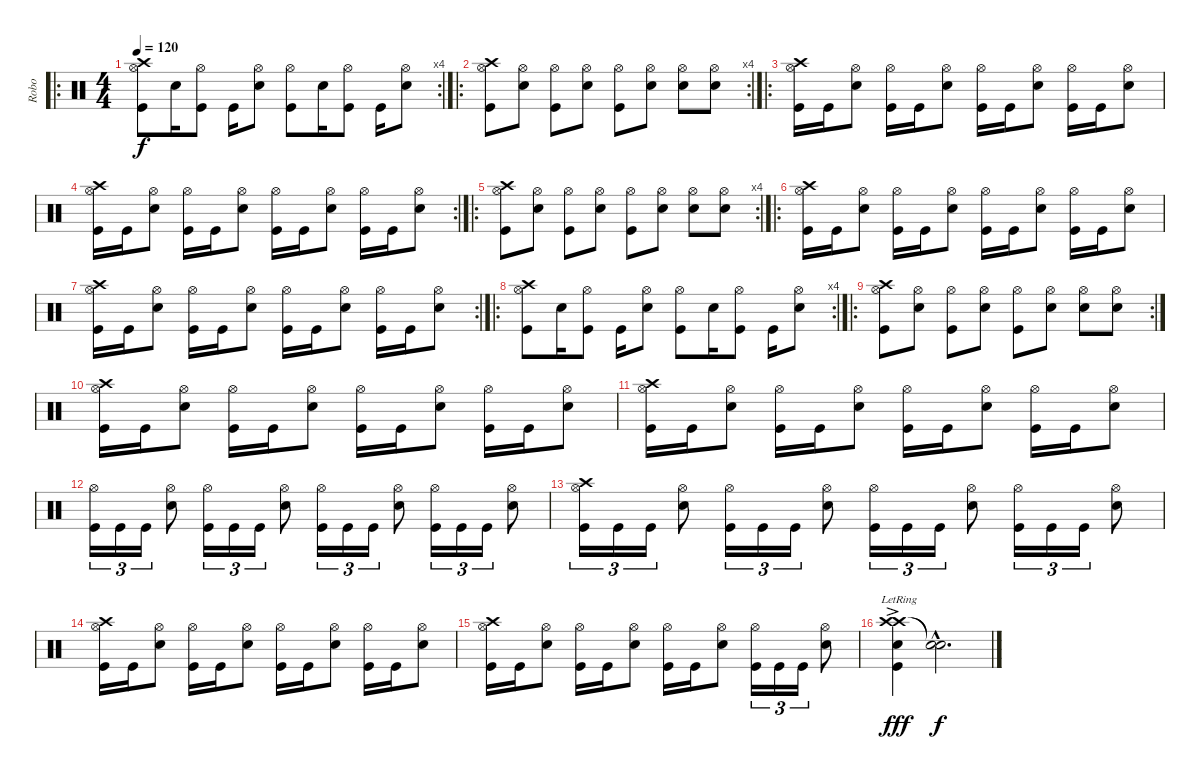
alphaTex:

\track ("Robo" "Robo") {instrument percussion}
\staff {score}
\articulation defaults
\ro
\rc 4
\ts (4 4)
\tempo 120
\clef neutral
\ks c
("Crash high (hit)" "Hi-Hat (open)" "Kick (hit)").8{dy f} "Snare (hit) 2".16 ("Hi-Hat (open)" "Kick (hit)").8 "Kick (hit)".16 ("Hi-Hat (open)" "Snare (hit) 2").8 ("Hi-Hat (open)" "Kick (hit)").8 "Snare (hit) 2".16 ("Hi-Hat (open)" "Kick (hit)").8 "Kick (hit)".16 ("Hi-Hat (open)" "Snare (hit) 2").8 |
\ro
\rc 4
("Crash high (hit)" "Hi-Hat (open)" "Kick (hit)").8 ("Hi-Hat (open)" "Snare (hit) 2").8 ("Hi-Hat (open)" "Kick (hit)").8 ("Hi-Hat (open)" "Snare (hit) 2").8 ("Hi-Hat (open)" "Kick (hit)").8 ("Hi-Hat (open)" "Snare (hit) 2").8 ("Hi-Hat (open)" "Snare (hit) 2").8 ("Hi-Hat (open)" "Snare (hit) 2").8 |
\ro
("Crash high (hit)" "Hi-Hat (open)" "Kick (hit)").16 "Kick (hit)".16 ("Hi-Hat (open)" "Snare (hit) 2").8 ("Hi-Hat (open)" "Kick (hit)").16 "Kick (hit)".16 ("Hi-Hat (open)" "Snare (hit) 2").8 ("Hi-Hat (open)" "Kick (hit)").16 "Kick (hit)".16 ("Hi-Hat (open)" "Snare (hit) 2").8 ("Hi-Hat (open)" "Kick (hit)").16 "Kick (hit)".16 ("Hi-Hat (open)" "Snare (hit) 2").8 |
\rc 2
("Crash high (hit)" "Hi-Hat (open)" "Kick (hit)").16 "Kick (hit)".16 ("Hi-Hat (open)" "Snare (hit) 2").8 ("Hi-Hat (open)" "Kick (hit)").16 "Kick (hit)".16 ("Hi-Hat (open)" "Snare (hit) 2").8 ("Hi-Hat (open)" "Kick (hit)").16 "Kick (hit)".16 ("Hi-Hat (open)" "Snare (hit) 2").8 ("Hi-Hat (open)" "Kick (hit)").16 "Kick (hit)".16 ("Hi-Hat (open)" "Snare (hit) 2").8 |
\ro
\rc 4
("Crash high (hit)" "Hi-Hat (open)" "Kick (hit)").8 ("Hi-Hat (open)" "Snare (hit) 2").8 ("Hi-Hat (open)" "Kick (hit)").8 ("Hi-Hat (open)" "Snare (hit) 2").8 ("Hi-Hat (open)" "Kick (hit)").8 ("Hi-Hat (open)" "Snare (hit) 2").8 ("Hi-Hat (open)" "Snare (hit) 2").8 ("Hi-Hat (open)" "Snare (hit) 2").8 |
\ro
("Crash high (hit)" "Hi-Hat (open)" "Kick (hit)").16 "Kick (hit)".16 ("Hi-Hat (open)" "Snare (hit) 2").8 ("Hi-Hat (open)" "Kick (hit)").16 "Kick (hit)".16 ("Hi-Hat (open)" "Snare (hit) 2").8 ("Hi-Hat (open)" "Kick (hit)").16 "Kick (hit)".16 ("Hi-Hat (open)" "Snare (hit) 2").8 ("Hi-Hat (open)" "Kick (hit)").16 "Kick (hit)".16 ("Hi-Hat (open)" "Snare (hit) 2").8 |
\rc 2
("Crash high (hit)" "Hi-Hat (open)" "Kick (hit)").16 "Kick (hit)".16 ("Hi-Hat (open)" "Snare (hit) 2").8 ("Hi-Hat (open)" "Kick (hit)").16 "Kick (hit)".16 ("Hi-Hat (open)" "Snare (hit) 2").8 ("Hi-Hat (open)" "Kick (hit)").16 "Kick (hit)".16 ("Hi-Hat (open)" "Snare (hit) 2").8 ("Hi-Hat (open)" "Kick (hit)").16 "Kick (hit)".16 ("Hi-Hat (open)" "Snare (hit) 2").8 |
\ro
\rc 4
("Crash high (hit)" "Hi-Hat (open)" "Kick (hit)").8 "Snare (hit) 2".16 ("Hi-Hat (open)" "Kick (hit)").8 "Kick (hit)".16 ("Hi-Hat (open)" "Snare (hit) 2").8 ("Hi-Hat (open)" "Kick (hit)").8 "Snare (hit) 2".16 ("Hi-Hat (open)" "Kick (hit)").8 "Kick (hit)".16 ("Hi-Hat (open)" "Snare (hit) 2").8 |
\ro
\rc 2
("Crash high (hit)" "Hi-Hat (open)" "Kick (hit)").8 ("Hi-Hat (open)" "Snare (hit) 2").8 ("Hi-Hat (open)" "Kick (hit)").8 ("Hi-Hat (open)" "Snare (hit) 2").8 ("Hi-Hat (open)" "Kick (hit)").8 ("Hi-Hat (open)" "Snare (hit) 2").8 ("Hi-Hat (open)" "Snare (hit) 2").8 ("Hi-Hat (open)" "Snare (hit) 2").8 |
("Crash high (hit)" "Hi-Hat (open)" "Kick (hit)").16 "Kick (hit)".16 ("Hi-Hat (open)" "Snare (hit) 2").8 ("Hi-Hat (open)" "Kick (hit)").16 "Kick (hit)".16 ("Hi-Hat (open)" "Snare (hit) 2").8 ("Hi-Hat (open)" "Kick (hit)").16 "Kick (hit)".16 ("Hi-Hat (open)" "Snare (hit) 2").8 ("Hi-Hat (open)" "Kick (hit)").16 "Kick (hit)".16 ("Hi-Hat (open)" "Snare (hit) 2").8 |
("Crash high (hit)" "Hi-Hat (open)" "Kick (hit)").16 "Kick (hit)".16 ("Hi-Hat (open)" "Snare (hit) 2").8 ("Hi-Hat (open)" "Kick (hit)").16 "Kick (hit)".16 ("Hi-Hat (open)" "Snare (hit) 2").8 ("Hi-Hat (open)" "Kick (hit)").16 "Kick (hit)".16 ("Hi-Hat (open)" "Snare (hit) 2").8 ("Hi-Hat (open)" "Kick (hit)").16 "Kick (hit)".16 ("Hi-Hat (open)" "Snare (hit) 2").8 |
("Hi-Hat (open)" "Kick (hit)").16{tu (3 2)} "Kick (hit)".16{tu (3 2)} "Kick (hit)".16{tu (3 2)} ("Hi-Hat (open)" "Snare (hit) 2").8 ("Hi-Hat (open)" "Kick (hit)").16{tu (3 2)} "Kick (hit)".16{tu (3 2)} "Kick (hit)".16{tu (3 2)} ("Hi-Hat (open)" "Snare (hit) 2").8 ("Hi-Hat (open)" "Kick (hit)").16{tu (3 2)} "Kick (hit)".16{tu (3 2)} "Kick (hit)".16{tu (3 2)} ("Hi-Hat (open)" "Snare (hit) 2").8 ("Hi-Hat (open)" "Kick (hit)").16{tu (3 2)} "Kick (hit)".16{tu (3 2)} "Kick (hit)".16{tu (3 2)} ("Hi-Hat (open)" "Snare (hit) 2").8 |
("Crash high (hit)" "Hi-Hat (open)" "Kick (hit)").16{tu (3 2)} "Kick (hit)".16{tu (3 2)} "Kick (hit)".16{tu (3 2)} ("Hi-Hat (open)" "Snare (hit) 2").8 ("Hi-Hat (open)" "Kick (hit)").16{tu (3 2)} "Kick (hit)".16{tu (3 2)} "Kick (hit)".16{tu (3 2)} ("Hi-Hat (open)" "Snare (hit) 2").8 ("Hi-Hat (open)" "Kick (hit)").16{tu (3 2)} "Kick (hit)".16{tu (3 2)} "Kick (hit)".16{tu (3 2)} ("Hi-Hat (open)" "Snare (hit) 2").8 ("Hi-Hat (open)" "Kick (hit)").16{tu (3 2)} "Kick (hit)".16{tu (3 2)} "Kick (hit)".16{tu (3 2)} ("Hi-Hat (open)" "Snare (hit) 2").8 |
("Crash high (hit)" "Hi-Hat (open)" "Kick (hit)").16 "Kick (hit)".16 ("Hi-Hat (open)" "Snare (hit) 2").8 ("Hi-Hat (open)" "Kick (hit)").16 "Kick (hit)".16 ("Hi-Hat (open)" "Snare (hit) 2").8 ("Hi-Hat (open)" "Kick (hit)").16 "Kick (hit)".16 ("Hi-Hat (open)" "Snare (hit) 2").8 ("Hi-Hat (open)" "Kick (hit)").16 "Kick (hit)".16 ("Hi-Hat (open)" "Snare (hit) 2").8 |
("Crash high (hit)" "Hi-Hat (open)" "Kick (hit)").16 "Kick (hit)".16 ("Hi-Hat (open)" "Snare (hit) 2").8 ("Hi-Hat (open)" "Kick (hit)").16 "Kick (hit)".16 ("Hi-Hat (open)" "Snare (hit) 2").8 ("Hi-Hat (open)" "Kick (hit)").16 "Kick (hit)".16 ("Hi-Hat (open)" "Snare (hit) 2").8 ("Hi-Hat (open)" "Kick (hit)").16{tu (3 2)} "Kick (hit)".16{tu (3 2)} "Kick (hit)".16{tu (3 2)} ("Hi-Hat (open)" "Snare (hit) 2").8 |
("Crash high (hit)"{ac lr} "Crash high (hit)"{ac lr} "Snare (hit) 2" "Kick (hit)").4{dy fff} ("Snare (hit)"{hac t} "Snare (hit)"{hac t}).2{d dy f}
